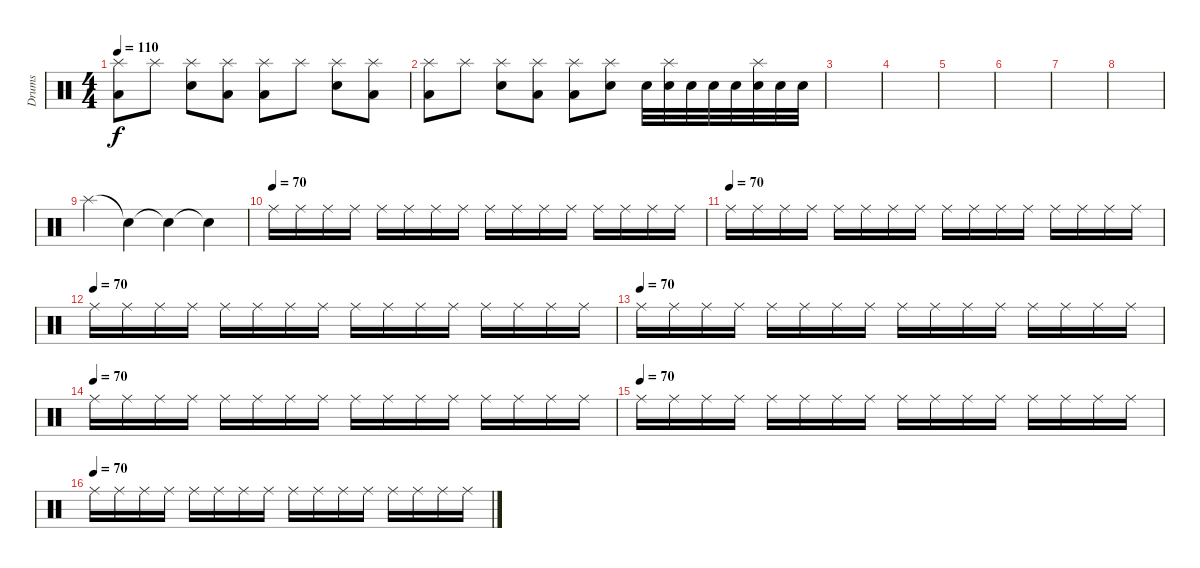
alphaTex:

\track ("Drums" "Drums") {instrument percussion}
\staff {score}
\articulation defaults
\ts (4 4)
\tempo 110
\clef neutral
\ks c
("Splash (hit)" "Low Floor Tom (hit)").8{dy f} "Splash (hit)".8 ("Splash (hit)" "Snare (hit) 2").8 ("Splash (hit)" "Low Floor Tom (hit)").8 ("Splash (hit)" "Low Floor Tom (hit)").8 "Splash (hit)".8 ("Splash (hit)" "Snare (hit) 2").8 ("Splash (hit)" "Low Floor Tom (hit)").8 |
("Splash (hit)" "Low Floor Tom (hit)").8 "Splash (hit)".8 ("Splash (hit)" "Snare (hit) 2").8 ("Splash (hit)" "Low Floor Tom (hit)").8 ("Splash (hit)" "Low Floor Tom (hit)").8 ("Splash (hit)" "Snare (hit) 2").8 "Snare (hit) 2".32 ("Splash (hit)" "Snare (hit) 2").32 "Snare (hit) 2".32 "Snare (hit) 2".32 "Snare (hit) 2".32 ("Splash (hit)" "Snare (hit) 2").32 "Snare (hit) 2".32 "Snare (hit) 2".32 |
|
|
|
|
|
|
"Splash (hit)".4 "Snare (hit)"{t}.4 "Snare (hit)"{t}.4 "Snare (hit)"{t}.4 |
\tempo (70)
"Ride (middle)".16 "Ride (middle)".16 "Ride (middle)".16 "Ride (middle)".16 "Ride (middle)".16 "Ride (middle)".16 "Ride (middle)".16 "Ride (middle)".16 "Ride (middle)".16 "Ride (middle)".16 "Ride (middle)".16 "Ride (middle)".16 "Ride (middle)".16 "Ride (middle)".16 "Ride (middle)".16 "Ride (middle)".16 |
\tempo (70)
"Ride (middle)".16 "Ride (middle)".16 "Ride (middle)".16 "Ride (middle)".16 "Ride (middle)".16 "Ride (middle)".16 "Ride (middle)".16 "Ride (middle)".16 "Ride (middle)".16 "Ride (middle)".16 "Ride (middle)".16 "Ride (middle)".16 "Ride (middle)".16 "Ride (middle)".16 "Ride (middle)".16 "Ride (middle)".16 |
\tempo (70)
"Ride (middle)".16 "Ride (middle)".16 "Ride (middle)".16 "Ride (middle)".16 "Ride (middle)".16 "Ride (middle)".16 "Ride (middle)".16 "Ride (middle)".16 "Ride (middle)".16 "Ride (middle)".16 "Ride (middle)".16 "Ride (middle)".16 "Ride (middle)".16 "Ride (middle)".16 "Ride (middle)".16 "Ride (middle)".16 |
\tempo (70)
"Ride (middle)".16 "Ride (middle)".16 "Ride (middle)".16 "Ride (middle)".16 "Ride (middle)".16 "Ride (middle)".16 "Ride (middle)".16 "Ride (middle)".16 "Ride (middle)".16 "Ride (middle)".16 "Ride (middle)".16 "Ride (middle)".16 "Ride (middle)".16 "Ride (middle)".16 "Ride (middle)".16 "Ride (middle)".16 |
\tempo (70)
"Ride (middle)".16 "Ride (middle)".16 "Ride (middle)".16 "Ride (middle)".16 "Ride (middle)".16 "Ride (middle)".16 "Ride (middle)".16 "Ride (middle)".16 "Ride (middle)".16 "Ride (middle)".16 "Ride (middle)".16 "Ride (middle)".16 "Ride (middle)".16 "Ride (middle)".16 "Ride (middle)".16 "Ride (middle)".16 |
\tempo (70)
"Ride (middle)".16 "Ride (middle)".16 "Ride (middle)".16 "Ride (middle)".16 "Ride (middle)".16 "Ride (middle)".16 "Ride (middle)".16 "Ride (middle)".16 "Ride (middle)".16 "Ride (middle)".16 "Ride (middle)".16 "Ride (middle)".16 "Ride (middle)".16 "Ride (middle)".16 "Ride (middle)".16 "Ride (middle)".16 |
\tempo (70)
"Ride (middle)".16 "Ride (middle)".16 "Ride (middle)".16 "Ride (middle)".16 "Ride (middle)".16 "Ride (middle)".16 "Ride (middle)".16 "Ride (middle)".16 "Ride (middle)".16 "Ride (middle)".16 "Ride (middle)".16 "Ride (middle)".16 "Ride (middle)".16 "Ride (middle)".16 "Ride (middle)".16 "Ride (middle)".16
